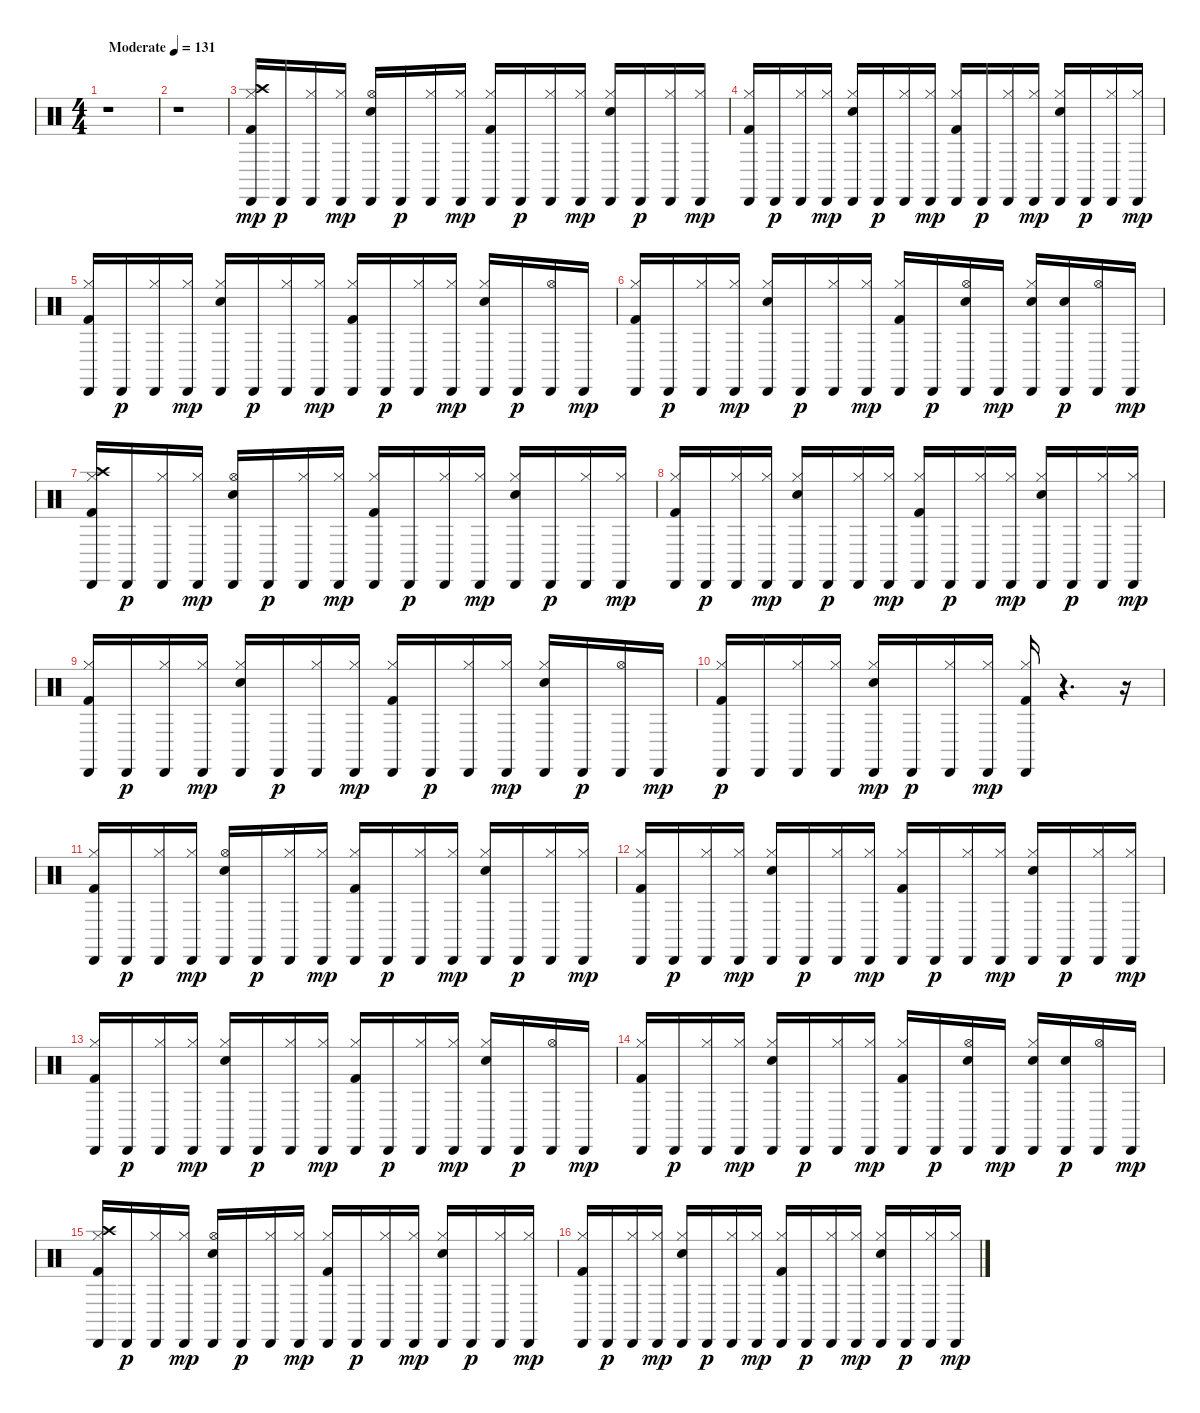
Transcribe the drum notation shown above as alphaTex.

\track "" {instrument percussion}
\staff {score}
\articulation defaults
\ts (4 4)
\tempo (131 "Moderate")
\clef neutral
\ks c
r.1{dy mp} |
r.1 |
("Kick (hit) 2" "Hi-Hat (closed)" "Crash high (hit)" "Cabasa (hit)").16 "Cabasa (hit)".16{dy p} ("Hi-Hat (closed)" "Cabasa (hit)").16 ("Hi-Hat (closed)" "Cabasa (hit)").16{dy mp} ("Snare (hit) 2" "Hi-Hat (open)" "Cabasa (hit)").16 "Cabasa (hit)".16{dy p} ("Hi-Hat (closed)" "Cabasa (hit)").16 ("Hi-Hat (closed)" "Cabasa (hit)").16{dy mp} ("Kick (hit) 2" "Hi-Hat (closed)" "Cabasa (hit)").16 "Cabasa (hit)".16{dy p} ("Hi-Hat (closed)" "Cabasa (hit)").16 ("Hi-Hat (closed)" "Cabasa (hit)").16{dy mp} ("Snare (hit) 2" "Hi-Hat (closed)" "Cabasa (hit)").16 "Cabasa (hit)".16{dy p} ("Hi-Hat (closed)" "Cabasa (hit)").16 ("Hi-Hat (closed)" "Cabasa (hit)").16{dy mp} |
("Kick (hit) 2" "Hi-Hat (closed)" "Cabasa (hit)").16 "Cabasa (hit)".16{dy p} ("Hi-Hat (closed)" "Cabasa (hit)").16 ("Hi-Hat (closed)" "Cabasa (hit)").16{dy mp} ("Snare (hit) 2" "Hi-Hat (closed)" "Cabasa (hit)").16 "Cabasa (hit)".16{dy p} ("Hi-Hat (closed)" "Cabasa (hit)").16 ("Hi-Hat (closed)" "Cabasa (hit)").16{dy mp} ("Kick (hit) 2" "Hi-Hat (closed)" "Cabasa (hit)").16 "Cabasa (hit)".16{dy p} ("Hi-Hat (closed)" "Cabasa (hit)").16 ("Hi-Hat (closed)" "Cabasa (hit)").16{dy mp} ("Snare (hit) 2" "Hi-Hat (closed)" "Cabasa (hit)").16 "Cabasa (hit)".16{dy p} ("Hi-Hat (closed)" "Cabasa (hit)").16 ("Hi-Hat (closed)" "Cabasa (hit)").16{dy mp} |
("Kick (hit) 2" "Hi-Hat (closed)" "Cabasa (hit)").16 "Cabasa (hit)".16{dy p} ("Hi-Hat (closed)" "Cabasa (hit)").16 ("Hi-Hat (closed)" "Cabasa (hit)").16{dy mp} ("Snare (hit) 2" "Hi-Hat (closed)" "Cabasa (hit)").16 "Cabasa (hit)".16{dy p} ("Hi-Hat (closed)" "Cabasa (hit)").16 ("Hi-Hat (closed)" "Cabasa (hit)").16{dy mp} ("Kick (hit) 2" "Hi-Hat (closed)" "Cabasa (hit)").16 "Cabasa (hit)".16{dy p} ("Hi-Hat (closed)" "Cabasa (hit)").16 ("Hi-Hat (closed)" "Cabasa (hit)").16{dy mp} ("Snare (hit) 2" "Hi-Hat (closed)" "Cabasa (hit)").16 "Cabasa (hit)".16{dy p} ("Hi-Hat (open)" "Cabasa (hit)").16 "Cabasa (hit)".16{dy mp} |
("Kick (hit) 2" "Hi-Hat (closed)" "Cabasa (hit)").16 "Cabasa (hit)".16{dy p} ("Hi-Hat (closed)" "Cabasa (hit)").16 ("Hi-Hat (closed)" "Cabasa (hit)").16{dy mp} ("Snare (hit) 2" "Hi-Hat (closed)" "Cabasa (hit)").16 "Cabasa (hit)".16{dy p} ("Hi-Hat (closed)" "Cabasa (hit)").16 ("Hi-Hat (closed)" "Cabasa (hit)").16{dy mp} ("Kick (hit) 2" "Hi-Hat (closed)" "Cabasa (hit)").16 "Cabasa (hit)".16{dy p} ("Snare (hit) 2" "Hi-Hat (open)" "Cabasa (hit)").16 "Cabasa (hit)".16{dy mp} ("Snare (hit) 2" "Hi-Hat (closed)" "Cabasa (hit)").16 ("Snare (hit) 2" "Cabasa (hit)").16{dy p} ("Hi-Hat (open)" "Cabasa (hit)").16 "Cabasa (hit)".16{dy mp} |
("Kick (hit) 2" "Hi-Hat (closed)" "Crash high (hit)" "Cabasa (hit)").16 "Cabasa (hit)".16{dy p} ("Hi-Hat (closed)" "Cabasa (hit)").16 ("Hi-Hat (closed)" "Cabasa (hit)").16{dy mp} ("Snare (hit) 2" "Hi-Hat (open)" "Cabasa (hit)").16 "Cabasa (hit)".16{dy p} ("Hi-Hat (closed)" "Cabasa (hit)").16 ("Hi-Hat (closed)" "Cabasa (hit)").16{dy mp} ("Kick (hit) 2" "Hi-Hat (closed)" "Cabasa (hit)").16 "Cabasa (hit)".16{dy p} ("Hi-Hat (closed)" "Cabasa (hit)").16 ("Hi-Hat (closed)" "Cabasa (hit)").16{dy mp} ("Snare (hit) 2" "Hi-Hat (closed)" "Cabasa (hit)").16 "Cabasa (hit)".16{dy p} ("Hi-Hat (closed)" "Cabasa (hit)").16 ("Hi-Hat (closed)" "Cabasa (hit)").16{dy mp} |
("Kick (hit) 2" "Hi-Hat (closed)" "Cabasa (hit)").16 "Cabasa (hit)".16{dy p} ("Hi-Hat (closed)" "Cabasa (hit)").16 ("Hi-Hat (closed)" "Cabasa (hit)").16{dy mp} ("Snare (hit) 2" "Hi-Hat (closed)" "Cabasa (hit)").16 "Cabasa (hit)".16{dy p} ("Hi-Hat (closed)" "Cabasa (hit)").16 ("Hi-Hat (closed)" "Cabasa (hit)").16{dy mp} ("Kick (hit) 2" "Hi-Hat (closed)" "Cabasa (hit)").16 "Cabasa (hit)".16{dy p} ("Hi-Hat (closed)" "Cabasa (hit)").16 ("Hi-Hat (closed)" "Cabasa (hit)").16{dy mp} ("Snare (hit) 2" "Hi-Hat (closed)" "Cabasa (hit)").16 "Cabasa (hit)".16{dy p} ("Hi-Hat (closed)" "Cabasa (hit)").16 ("Hi-Hat (closed)" "Cabasa (hit)").16{dy mp} |
("Kick (hit) 2" "Hi-Hat (closed)" "Cabasa (hit)").16 "Cabasa (hit)".16{dy p} ("Hi-Hat (closed)" "Cabasa (hit)").16 ("Hi-Hat (closed)" "Cabasa (hit)").16{dy mp} ("Snare (hit) 2" "Hi-Hat (closed)" "Cabasa (hit)").16 "Cabasa (hit)".16{dy p} ("Hi-Hat (closed)" "Cabasa (hit)").16 ("Hi-Hat (closed)" "Cabasa (hit)").16{dy mp} ("Kick (hit) 2" "Hi-Hat (closed)" "Cabasa (hit)").16 "Cabasa (hit)".16{dy p} ("Hi-Hat (closed)" "Cabasa (hit)").16 ("Hi-Hat (closed)" "Cabasa (hit)").16{dy mp} ("Snare (hit) 2" "Hi-Hat (closed)" "Cabasa (hit)").16 "Cabasa (hit)".16{dy p} ("Hi-Hat (open)" "Cabasa (hit)").16 "Cabasa (hit)".16{dy mp} |
("Kick (hit) 2" "Hi-Hat (closed)" "Cabasa (hit)").16{dy p} "Cabasa (hit)".16 ("Hi-Hat (closed)" "Cabasa (hit)").16 ("Hi-Hat (closed)" "Cabasa (hit)").16 ("Snare (hit) 2" "Hi-Hat (closed)" "Cabasa (hit)").16{dy mp} "Cabasa (hit)".16{dy p} ("Hi-Hat (closed)" "Cabasa (hit)").16 ("Hi-Hat (closed)" "Cabasa (hit)").16{dy mp} ("Kick (hit) 2" "Hi-Hat (closed)" "Cabasa (hit)").16 r.4{d} r.16 |
("Kick (hit) 2" "Hi-Hat (closed)" "Cabasa (hit)").16 "Cabasa (hit)".16{dy p} ("Hi-Hat (closed)" "Cabasa (hit)").16 ("Hi-Hat (closed)" "Cabasa (hit)").16{dy mp} ("Snare (hit) 2" "Hi-Hat (open)" "Cabasa (hit)").16 "Cabasa (hit)".16{dy p} ("Hi-Hat (closed)" "Cabasa (hit)").16 ("Hi-Hat (closed)" "Cabasa (hit)").16{dy mp} ("Kick (hit) 2" "Hi-Hat (closed)" "Cabasa (hit)").16 "Cabasa (hit)".16{dy p} ("Hi-Hat (closed)" "Cabasa (hit)").16 ("Hi-Hat (closed)" "Cabasa (hit)").16{dy mp} ("Snare (hit) 2" "Hi-Hat (closed)" "Cabasa (hit)").16 "Cabasa (hit)".16{dy p} ("Hi-Hat (closed)" "Cabasa (hit)").16 ("Hi-Hat (closed)" "Cabasa (hit)").16{dy mp} |
("Kick (hit) 2" "Hi-Hat (closed)" "Cabasa (hit)").16 "Cabasa (hit)".16{dy p} ("Hi-Hat (closed)" "Cabasa (hit)").16 ("Hi-Hat (closed)" "Cabasa (hit)").16{dy mp} ("Snare (hit) 2" "Hi-Hat (closed)" "Cabasa (hit)").16 "Cabasa (hit)".16{dy p} ("Hi-Hat (closed)" "Cabasa (hit)").16 ("Hi-Hat (closed)" "Cabasa (hit)").16{dy mp} ("Kick (hit) 2" "Hi-Hat (closed)" "Cabasa (hit)").16 "Cabasa (hit)".16{dy p} ("Hi-Hat (closed)" "Cabasa (hit)").16 ("Hi-Hat (closed)" "Cabasa (hit)").16{dy mp} ("Snare (hit) 2" "Hi-Hat (closed)" "Cabasa (hit)").16 "Cabasa (hit)".16{dy p} ("Hi-Hat (closed)" "Cabasa (hit)").16 ("Hi-Hat (closed)" "Cabasa (hit)").16{dy mp} |
("Kick (hit) 2" "Hi-Hat (closed)" "Cabasa (hit)").16 "Cabasa (hit)".16{dy p} ("Hi-Hat (closed)" "Cabasa (hit)").16 ("Hi-Hat (closed)" "Cabasa (hit)").16{dy mp} ("Snare (hit) 2" "Hi-Hat (closed)" "Cabasa (hit)").16 "Cabasa (hit)".16{dy p} ("Hi-Hat (closed)" "Cabasa (hit)").16 ("Hi-Hat (closed)" "Cabasa (hit)").16{dy mp} ("Kick (hit) 2" "Hi-Hat (closed)" "Cabasa (hit)").16 "Cabasa (hit)".16{dy p} ("Hi-Hat (closed)" "Cabasa (hit)").16 ("Hi-Hat (closed)" "Cabasa (hit)").16{dy mp} ("Snare (hit) 2" "Hi-Hat (closed)" "Cabasa (hit)").16 "Cabasa (hit)".16{dy p} ("Hi-Hat (open)" "Cabasa (hit)").16 "Cabasa (hit)".16{dy mp} |
("Kick (hit) 2" "Hi-Hat (closed)" "Cabasa (hit)").16 "Cabasa (hit)".16{dy p} ("Hi-Hat (closed)" "Cabasa (hit)").16 ("Hi-Hat (closed)" "Cabasa (hit)").16{dy mp} ("Snare (hit) 2" "Hi-Hat (closed)" "Cabasa (hit)").16 "Cabasa (hit)".16{dy p} ("Hi-Hat (closed)" "Cabasa (hit)").16 ("Hi-Hat (closed)" "Cabasa (hit)").16{dy mp} ("Kick (hit) 2" "Hi-Hat (closed)" "Cabasa (hit)").16 "Cabasa (hit)".16{dy p} ("Snare (hit) 2" "Hi-Hat (open)" "Cabasa (hit)").16 "Cabasa (hit)".16{dy mp} ("Snare (hit) 2" "Hi-Hat (closed)" "Cabasa (hit)").16 ("Snare (hit) 2" "Cabasa (hit)").16{dy p} ("Hi-Hat (open)" "Cabasa (hit)").16 "Cabasa (hit)".16{dy mp} |
("Kick (hit) 2" "Hi-Hat (closed)" "Crash high (hit)" "Cabasa (hit)").16 "Cabasa (hit)".16{dy p} ("Hi-Hat (closed)" "Cabasa (hit)").16 ("Hi-Hat (closed)" "Cabasa (hit)").16{dy mp} ("Snare (hit) 2" "Hi-Hat (open)" "Cabasa (hit)").16 "Cabasa (hit)".16{dy p} ("Hi-Hat (closed)" "Cabasa (hit)").16 ("Hi-Hat (closed)" "Cabasa (hit)").16{dy mp} ("Kick (hit) 2" "Hi-Hat (closed)" "Cabasa (hit)").16 "Cabasa (hit)".16{dy p} ("Hi-Hat (closed)" "Cabasa (hit)").16 ("Hi-Hat (closed)" "Cabasa (hit)").16{dy mp} ("Snare (hit) 2" "Hi-Hat (closed)" "Cabasa (hit)").16 "Cabasa (hit)".16{dy p} ("Hi-Hat (closed)" "Cabasa (hit)").16 ("Hi-Hat (closed)" "Cabasa (hit)").16{dy mp} |
("Kick (hit) 2" "Hi-Hat (closed)" "Cabasa (hit)").16 "Cabasa (hit)".16{dy p} ("Hi-Hat (closed)" "Cabasa (hit)").16 ("Hi-Hat (closed)" "Cabasa (hit)").16{dy mp} ("Snare (hit) 2" "Hi-Hat (closed)" "Cabasa (hit)").16 "Cabasa (hit)".16{dy p} ("Hi-Hat (closed)" "Cabasa (hit)").16 ("Hi-Hat (closed)" "Cabasa (hit)").16{dy mp} ("Kick (hit) 2" "Hi-Hat (closed)" "Cabasa (hit)").16 "Cabasa (hit)".16{dy p} ("Hi-Hat (closed)" "Cabasa (hit)").16 ("Hi-Hat (closed)" "Cabasa (hit)").16{dy mp} ("Snare (hit) 2" "Hi-Hat (closed)" "Cabasa (hit)").16 "Cabasa (hit)".16{dy p} ("Hi-Hat (closed)" "Cabasa (hit)").16 ("Hi-Hat (closed)" "Cabasa (hit)").16{dy mp}
